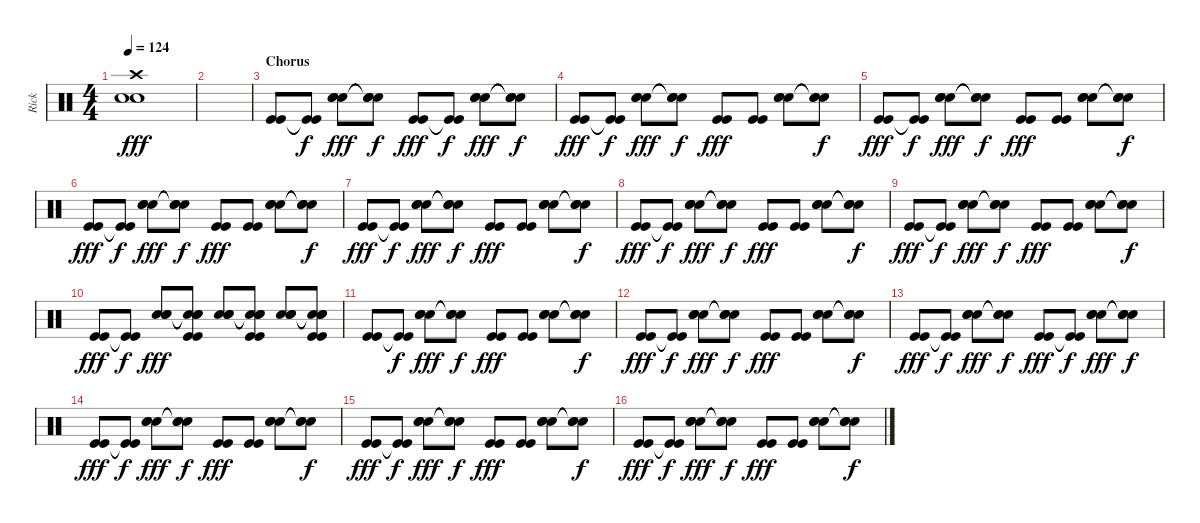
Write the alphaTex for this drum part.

\track ("Rick" "Rick") {instrument percussion}
\staff {score}
\articulation defaults
\ts (4 4)
\tempo 124
\clef neutral
\ks c
("Snare (hit) 2" "Snare (hit) 2" "Crash high (hit)").1{dy fff} |
|
\section ("" "Chorus")
("Kick (hit)" "Kick (hit)").8 ("Kick (hit)"{t} "Kick (hit)"{t}).8{dy f} ("Snare (hit) 2" "Snare (hit) 2" "Snare (hit) 2").8{dy fff} ("Snare (hit)"{t} "Snare (hit)"{t} "Snare (hit)"{t}).8{dy f} ("Kick (hit)" "Kick (hit)").8{dy fff} ("Kick (hit)"{t} "Kick (hit)"{t}).8{dy f} ("Snare (hit) 2" "Snare (hit) 2" "Snare (hit) 2").8{dy fff} ("Snare (hit)"{t} "Snare (hit)"{t} "Snare (hit)"{t}).8{dy f} |
("Kick (hit)" "Kick (hit)").8{dy fff} ("Kick (hit)"{t} "Kick (hit)"{t}).8{dy f} ("Snare (hit) 2" "Snare (hit) 2" "Snare (hit) 2").8{dy fff} ("Snare (hit)"{t} "Snare (hit)"{t} "Snare (hit)"{t}).8{dy f} ("Kick (hit)" "Kick (hit)").8{dy fff} ("Kick (hit)" "Kick (hit)").8 ("Snare (hit) 2" "Snare (hit) 2" "Snare (hit) 2").8 ("Snare (hit)"{t} "Snare (hit)"{t} "Snare (hit)"{t}).8{dy f} |
("Kick (hit)" "Kick (hit)").8{dy fff} ("Kick (hit)"{t} "Kick (hit)"{t}).8{dy f} ("Snare (hit) 2" "Snare (hit) 2" "Snare (hit) 2").8{dy fff} ("Snare (hit)"{t} "Snare (hit)"{t} "Snare (hit)"{t}).8{dy f} ("Kick (hit)" "Kick (hit)").8{dy fff} ("Kick (hit)" "Kick (hit)").8 ("Snare (hit) 2" "Snare (hit) 2" "Snare (hit) 2").8 ("Snare (hit)"{t} "Snare (hit)"{t} "Snare (hit)"{t}).8{dy f} |
("Kick (hit)" "Kick (hit)").8{dy fff} ("Kick (hit)"{t} "Kick (hit)"{t}).8{dy f} ("Snare (hit) 2" "Snare (hit) 2" "Snare (hit) 2").8{dy fff} ("Snare (hit)"{t} "Snare (hit)"{t} "Snare (hit)"{t}).8{dy f} ("Kick (hit)" "Kick (hit)").8{dy fff} ("Kick (hit)" "Kick (hit)").8 ("Snare (hit) 2" "Snare (hit) 2" "Snare (hit) 2").8 ("Snare (hit)"{t} "Snare (hit)"{t} "Snare (hit)"{t}).8{dy f} |
("Kick (hit)" "Kick (hit)").8{dy fff} ("Kick (hit)"{t} "Kick (hit)"{t}).8{dy f} ("Snare (hit) 2" "Snare (hit) 2" "Snare (hit) 2").8{dy fff} ("Snare (hit)"{t} "Snare (hit)"{t} "Snare (hit)"{t}).8{dy f} ("Kick (hit)" "Kick (hit)").8{dy fff} ("Kick (hit)" "Kick (hit)").8 ("Snare (hit) 2" "Snare (hit) 2" "Snare (hit) 2").8 ("Snare (hit)"{t} "Snare (hit)"{t} "Snare (hit)"{t}).8{dy f} |
("Kick (hit)" "Kick (hit)").8{dy fff} ("Kick (hit)"{t} "Kick (hit)"{t}).8{dy f} ("Snare (hit) 2" "Snare (hit) 2" "Snare (hit) 2").8{dy fff} ("Snare (hit)"{t} "Snare (hit)"{t} "Snare (hit)"{t}).8{dy f} ("Kick (hit)" "Kick (hit)").8{dy fff} ("Kick (hit)" "Kick (hit)").8 ("Snare (hit) 2" "Snare (hit) 2" "Snare (hit) 2").8 ("Snare (hit)"{t} "Snare (hit)"{t} "Snare (hit)"{t}).8{dy f} |
("Kick (hit)" "Kick (hit)").8{dy fff} ("Kick (hit)"{t} "Kick (hit)"{t}).8{dy f} ("Snare (hit) 2" "Snare (hit) 2" "Snare (hit) 2").8{dy fff} ("Snare (hit)"{t} "Snare (hit)"{t} "Snare (hit)"{t}).8{dy f} ("Kick (hit)" "Kick (hit)").8{dy fff} ("Kick (hit)" "Kick (hit)").8 ("Snare (hit) 2" "Snare (hit) 2" "Snare (hit) 2").8 ("Snare (hit)"{t} "Snare (hit)"{t} "Snare (hit)"{t}).8{dy f} |
("Kick (hit)" "Kick (hit)").8{dy fff} ("Kick (hit)"{t} "Kick (hit)"{t}).8{dy f} ("Snare (hit) 2" "Snare (hit) 2" "Snare (hit) 2").8{dy fff} ("Snare (hit)"{t} "Snare (hit)"{t} "Snare (hit)"{t} "Kick (hit)" "Kick (hit)").8 ("Snare (hit) 2" "Snare (hit) 2" "Snare (hit) 2").8 ("Snare (hit)"{t} "Snare (hit)"{t} "Snare (hit)"{t} "Kick (hit)" "Kick (hit)").8 ("Snare (hit) 2" "Snare (hit) 2" "Snare (hit) 2").8 ("Snare (hit)"{t} "Snare (hit)"{t} "Snare (hit)"{t} "Kick (hit)" "Kick (hit)").8 |
("Kick (hit)" "Kick (hit)").8 ("Kick (hit)"{t} "Kick (hit)"{t}).8{dy f} ("Snare (hit) 2" "Snare (hit) 2" "Snare (hit) 2").8{dy fff} ("Snare (hit)"{t} "Snare (hit)"{t} "Snare (hit)"{t}).8{dy f} ("Kick (hit)" "Kick (hit)").8{dy fff} ("Kick (hit)" "Kick (hit)").8 ("Snare (hit) 2" "Snare (hit) 2" "Snare (hit) 2").8 ("Snare (hit)"{t} "Snare (hit)"{t} "Snare (hit)"{t}).8{dy f} |
("Kick (hit)" "Kick (hit)").8{dy fff} ("Kick (hit)"{t} "Kick (hit)"{t}).8{dy f} ("Snare (hit) 2" "Snare (hit) 2" "Snare (hit) 2").8{dy fff} ("Snare (hit)"{t} "Snare (hit)"{t} "Snare (hit)"{t}).8{dy f} ("Kick (hit)" "Kick (hit)").8{dy fff} ("Kick (hit)" "Kick (hit)").8 ("Snare (hit) 2" "Snare (hit) 2" "Snare (hit) 2").8 ("Snare (hit)"{t} "Snare (hit)"{t} "Snare (hit)"{t}).8{dy f} |
("Kick (hit)" "Kick (hit)").8{dy fff} ("Kick (hit)"{t} "Kick (hit)"{t}).8{dy f} ("Snare (hit) 2" "Snare (hit) 2" "Snare (hit) 2").8{dy fff} ("Snare (hit)"{t} "Snare (hit)"{t} "Snare (hit)"{t}).8{dy f} ("Kick (hit)" "Kick (hit)").8{dy fff} ("Kick (hit)"{t} "Kick (hit)"{t}).8{dy f} ("Snare (hit) 2" "Snare (hit) 2" "Snare (hit) 2").8{dy fff} ("Snare (hit)"{t} "Snare (hit)"{t} "Snare (hit)"{t}).8{dy f} |
("Kick (hit)" "Kick (hit)").8{dy fff} ("Kick (hit)"{t} "Kick (hit)"{t}).8{dy f} ("Snare (hit) 2" "Snare (hit) 2" "Snare (hit) 2").8{dy fff} ("Snare (hit)"{t} "Snare (hit)"{t} "Snare (hit)"{t}).8{dy f} ("Kick (hit)" "Kick (hit)").8{dy fff} ("Kick (hit)" "Kick (hit)").8 ("Snare (hit) 2" "Snare (hit) 2" "Snare (hit) 2").8 ("Snare (hit)"{t} "Snare (hit)"{t} "Snare (hit)"{t}).8{dy f} |
("Kick (hit)" "Kick (hit)").8{dy fff} ("Kick (hit)"{t} "Kick (hit)"{t}).8{dy f} ("Snare (hit) 2" "Snare (hit) 2" "Snare (hit) 2").8{dy fff} ("Snare (hit)"{t} "Snare (hit)"{t} "Snare (hit)"{t}).8{dy f} ("Kick (hit)" "Kick (hit)").8{dy fff} ("Kick (hit)" "Kick (hit)").8 ("Snare (hit) 2" "Snare (hit) 2" "Snare (hit) 2").8 ("Snare (hit)"{t} "Snare (hit)"{t} "Snare (hit)"{t}).8{dy f} |
("Kick (hit)" "Kick (hit)").8{dy fff} ("Kick (hit)"{t} "Kick (hit)"{t}).8{dy f} ("Snare (hit) 2" "Snare (hit) 2" "Snare (hit) 2").8{dy fff} ("Snare (hit)"{t} "Snare (hit)"{t} "Snare (hit)"{t}).8{dy f} ("Kick (hit)" "Kick (hit)").8{dy fff} ("Kick (hit)" "Kick (hit)").8 ("Snare (hit) 2" "Snare (hit) 2" "Snare (hit) 2").8 ("Snare (hit)"{t} "Snare (hit)"{t} "Snare (hit)"{t}).8{dy f}
